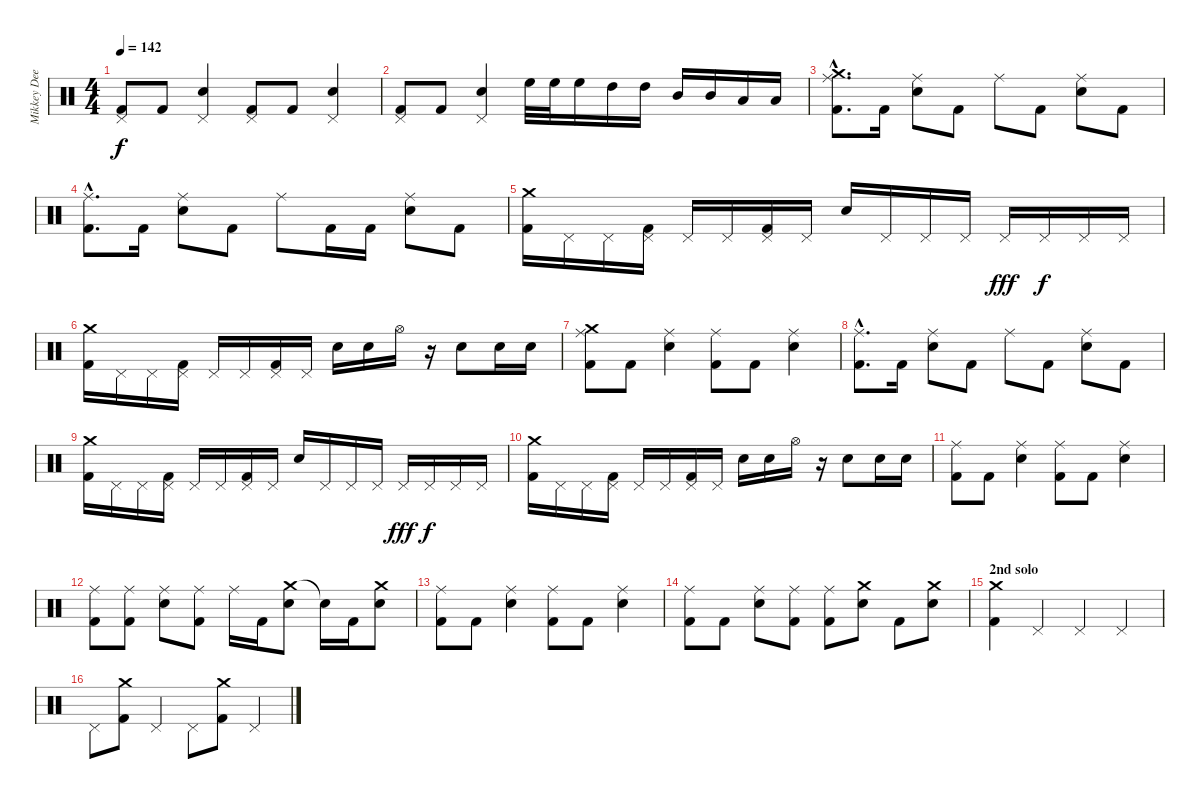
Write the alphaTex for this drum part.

\track ("Mikkey Dee" "Mikkey Dee") {instrument percussion}
\staff {score}
\articulation defaults
\ts (4 4)
\tempo 142
\clef neutral
\ks c
("Kick (hit) 2" "Pedal Hi-Hat (hit)").8{dy f} "Kick (hit) 2".8 ("Pedal Hi-Hat (hit)" "Snare (hit) 2").4 ("Kick (hit) 2" "Pedal Hi-Hat (hit)").8 "Kick (hit) 2".8 ("Pedal Hi-Hat (hit)" "Snare (hit) 2").4 |
("Kick (hit) 2" "Pedal Hi-Hat (hit)").8 "Kick (hit) 2".8 ("Pedal Hi-Hat (hit)" "Snare (hit) 2").4 "High Floor Tom (hit)".32 "High Floor Tom (hit)".32 "High Floor Tom (hit)".16 "High Tom (hit)".16 "High Tom (hit)".16 "Mid Tom (hit)".16 "Mid Tom (hit)".16 "Low Tom (hit)".16 "Low Tom (hit)".16 |
("Kick (hit) 2"{hac} "Ride (middle)"{hac} "Crash medium (hit)"{hac}).8{d} "Kick (hit) 2".16 ("Ride (middle)" "Snare (hit) 2").8 "Kick (hit) 2".8 "Ride (middle)".8 "Kick (hit) 2".8 ("Ride (middle)" "Snare (hit) 2").8 "Kick (hit) 2".8 |
("Kick (hit) 2"{hac} "Ride (middle)"{hac}).8{d} "Kick (hit) 2".16 ("Ride (middle)" "Snare (hit) 2").8 "Kick (hit) 2".8 "Ride (middle)".8 "Kick (hit) 2".16 "Kick (hit) 2".16 ("Ride (middle)" "Snare (hit) 2").8 "Kick (hit) 2".8 |
("Kick (hit) 2" "Crash medium (hit)").16 "Pedal Hi-Hat (hit)".16 "Pedal Hi-Hat (hit)".16 ("Kick (hit) 2" "Pedal Hi-Hat (hit)").16 "Pedal Hi-Hat (hit)".16 "Pedal Hi-Hat (hit)".16 ("Kick (hit) 2" "Pedal Hi-Hat (hit)").16 "Pedal Hi-Hat (hit)".16 "Snare (hit) 2".16 "Pedal Hi-Hat (hit)".16 "Pedal Hi-Hat (hit)".16 "Pedal Hi-Hat (hit)".16 "Pedal Hi-Hat (hit)".16{dy fff} "Pedal Hi-Hat (hit)".16{dy f} "Pedal Hi-Hat (hit)".16 "Pedal Hi-Hat (hit)".16 |
("Kick (hit) 2" "Crash medium (hit)").16 "Pedal Hi-Hat (hit)".16 "Pedal Hi-Hat (hit)".16 ("Kick (hit) 2" "Pedal Hi-Hat (hit)").16 "Pedal Hi-Hat (hit)".16 "Pedal Hi-Hat (hit)".16 ("Kick (hit) 2" "Pedal Hi-Hat (hit)").16 "Pedal Hi-Hat (hit)".16 "Snare (hit) 2".16 "Snare (hit) 2".16 "Hi-Hat (open)".16 r.16 "Snare (hit) 2".8 "Snare (hit) 2".16 "Snare (hit) 2".16 |
("Kick (hit) 2" "Ride (middle)" "Crash medium (hit)").8 "Kick (hit) 2".8 ("Ride (middle)" "Snare (hit) 2").4 ("Kick (hit) 2" "Ride (middle)").8 "Kick (hit) 2".8 ("Ride (middle)" "Snare (hit) 2").4 |
("Kick (hit) 2"{hac} "Ride (middle)"{hac}).8{d} "Kick (hit) 2".16 ("Ride (middle)" "Snare (hit) 2").8 "Kick (hit) 2".8 "Ride (middle)".8 "Kick (hit) 2".8 ("Ride (middle)" "Snare (hit) 2").8 "Kick (hit) 2".8 |
("Kick (hit) 2" "Crash medium (hit)").16 "Pedal Hi-Hat (hit)".16 "Pedal Hi-Hat (hit)".16 ("Kick (hit) 2" "Pedal Hi-Hat (hit)").16 "Pedal Hi-Hat (hit)".16 "Pedal Hi-Hat (hit)".16 ("Kick (hit) 2" "Pedal Hi-Hat (hit)").16 "Pedal Hi-Hat (hit)".16 "Snare (hit) 2".16 "Pedal Hi-Hat (hit)".16 "Pedal Hi-Hat (hit)".16 "Pedal Hi-Hat (hit)".16 "Pedal Hi-Hat (hit)".16{dy fff} "Pedal Hi-Hat (hit)".16{dy f} "Pedal Hi-Hat (hit)".16 "Pedal Hi-Hat (hit)".16 |
("Kick (hit) 2" "Crash medium (hit)").16 "Pedal Hi-Hat (hit)".16 "Pedal Hi-Hat (hit)".16 ("Kick (hit) 2" "Pedal Hi-Hat (hit)").16 "Pedal Hi-Hat (hit)".16 "Pedal Hi-Hat (hit)".16 ("Kick (hit) 2" "Pedal Hi-Hat (hit)").16 "Pedal Hi-Hat (hit)".16 "Snare (hit) 2".16 "Snare (hit) 2".16 "Hi-Hat (open)".16 r.16 "Snare (hit) 2".8 "Snare (hit) 2".16 "Snare (hit) 2".16 |
("Kick (hit) 2" "Ride (middle)").8 "Kick (hit) 2".8 ("Ride (middle)" "Snare (hit) 2").4 ("Kick (hit) 2" "Ride (middle)").8 "Kick (hit) 2".8 ("Ride (middle)" "Snare (hit) 2").4 |
("Kick (hit) 2" "Ride (middle)").8 ("Kick (hit) 2" "Ride (middle)").8 ("Ride (middle)" "Snare (hit) 2").8 ("Kick (hit) 2" "Ride (middle)").8 "Ride (middle)".16 "Kick (hit) 2".16 ("Crash medium (hit)" "Snare (hit) 2").8 "Snare (hit)"{t}.16 "Kick (hit) 2".16 ("Crash medium (hit)" "Snare (hit) 2").8 |
("Kick (hit) 2" "Ride (middle)").8 "Kick (hit) 2".8 ("Ride (middle)" "Snare (hit) 2").4 ("Kick (hit) 2" "Ride (middle)").8 "Kick (hit) 2".8 ("Ride (middle)" "Snare (hit) 2").4 |
("Kick (hit) 2" "Ride (middle)").8 "Kick (hit) 2".8 ("Ride (middle)" "Snare (hit) 2").8 ("Kick (hit) 2" "Ride (middle)").8 ("Kick (hit) 2" "Ride (middle)").8 ("Crash medium (hit)" "Snare (hit) 2").8 "Kick (hit) 2".8 ("Crash medium (hit)" "Snare (hit) 2").8 |
\section ("" "2nd solo")
("Kick (hit) 2" "Crash medium (hit)").4 "Pedal Hi-Hat (hit)".4 "Pedal Hi-Hat (hit)".4 "Pedal Hi-Hat (hit)".4 |
"Pedal Hi-Hat (hit)".8 ("Kick (hit) 2" "Crash medium (hit)").8 "Pedal Hi-Hat (hit)".4 "Pedal Hi-Hat (hit)".8 ("Kick (hit) 2" "Crash medium (hit)").8 "Pedal Hi-Hat (hit)".4
